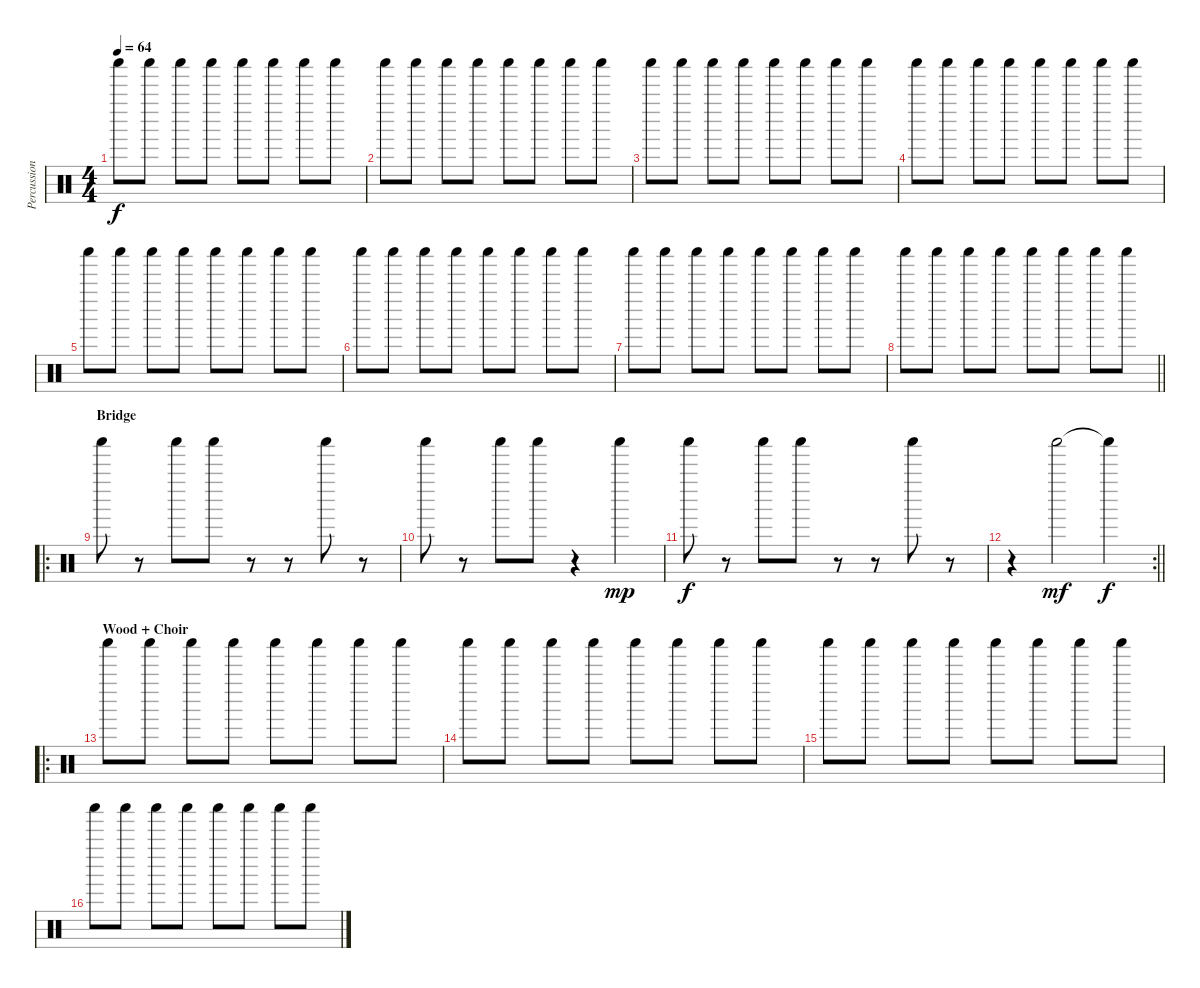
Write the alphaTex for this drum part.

\track ("Percussions" "Percussion") {instrument percussion}
\staff {score}
\articulation defaults
\ts (4 4)
\tempo 64
\clef neutral
\ks c "Shaker (hit)".8{dy f} "Shaker (hit)".8 "Shaker (hit)".8 "Shaker (hit)".8 "Shaker (hit)".8 "Shaker (hit)".8 "Shaker (hit)".8 "Shaker (hit)".8
|
"Shaker (hit)".8 "Shaker (hit)".8 "Shaker (hit)".8 "Shaker (hit)".8 "Shaker (hit)".8 "Shaker (hit)".8 "Shaker (hit)".8 "Shaker (hit)".8 |
"Shaker (hit)".8 "Shaker (hit)".8 "Shaker (hit)".8 "Shaker (hit)".8 "Shaker (hit)".8 "Shaker (hit)".8 "Shaker (hit)".8 "Shaker (hit)".8 |
"Shaker (hit)".8 "Shaker (hit)".8 "Shaker (hit)".8 "Shaker (hit)".8 "Shaker (hit)".8 "Shaker (hit)".8 "Shaker (hit)".8 "Shaker (hit)".8 |
"Shaker (hit)".8 "Shaker (hit)".8 "Shaker (hit)".8 "Shaker (hit)".8 "Shaker (hit)".8 "Shaker (hit)".8 "Shaker (hit)".8 "Shaker (hit)".8 |
"Shaker (hit)".8 "Shaker (hit)".8 "Shaker (hit)".8 "Shaker (hit)".8 "Shaker (hit)".8 "Shaker (hit)".8 "Shaker (hit)".8 "Shaker (hit)".8 |
"Shaker (hit)".8 "Shaker (hit)".8 "Shaker (hit)".8 "Shaker (hit)".8 "Shaker (hit)".8 "Shaker (hit)".8 "Shaker (hit)".8 "Shaker (hit)".8 |
\barLineRight lightlight "Shaker (hit)".8 "Shaker (hit)".8 "Shaker (hit)".8 "Shaker (hit)".8 "Shaker (hit)".8 "Shaker (hit)".8 "Shaker (hit)".8 "Shaker (hit)".8
|
\ro
\section ("" "Bridge")
"Shaker (hit)".8 r.8 "Shaker (hit)".8 "Shaker (hit)".8 r.8 r.8 "Shaker (hit)".8 r.8 |
"Shaker (hit)".8 r.8 "Shaker (hit)".8 "Shaker (hit)".8 r.4 "Shaker (hit)".4{dy mp} |
"Shaker (hit)".8{dy f} r.8 "Shaker (hit)".8 "Shaker (hit)".8 r.8 r.8 "Shaker (hit)".8 r.8 |
\rc 2
\barLineRight lightlight
r.4 "Shaker (hit)".2{dy mf} "Shaker (hit)"{t}.4{dy f} |
\ro
\section ("" "Wood + Choir")
"Shaker (hit)".8 "Shaker (hit)".8 "Shaker (hit)".8 "Shaker (hit)".8 "Shaker (hit)".8 "Shaker (hit)".8 "Shaker (hit)".8 "Shaker (hit)".8 |
"Shaker (hit)".8 "Shaker (hit)".8 "Shaker (hit)".8 "Shaker (hit)".8 "Shaker (hit)".8 "Shaker (hit)".8 "Shaker (hit)".8 "Shaker (hit)".8 |
"Shaker (hit)".8 "Shaker (hit)".8 "Shaker (hit)".8 "Shaker (hit)".8 "Shaker (hit)".8 "Shaker (hit)".8 "Shaker (hit)".8 "Shaker (hit)".8 |
"Shaker (hit)".8 "Shaker (hit)".8 "Shaker (hit)".8 "Shaker (hit)".8 "Shaker (hit)".8 "Shaker (hit)".8 "Shaker (hit)".8 "Shaker (hit)".8
